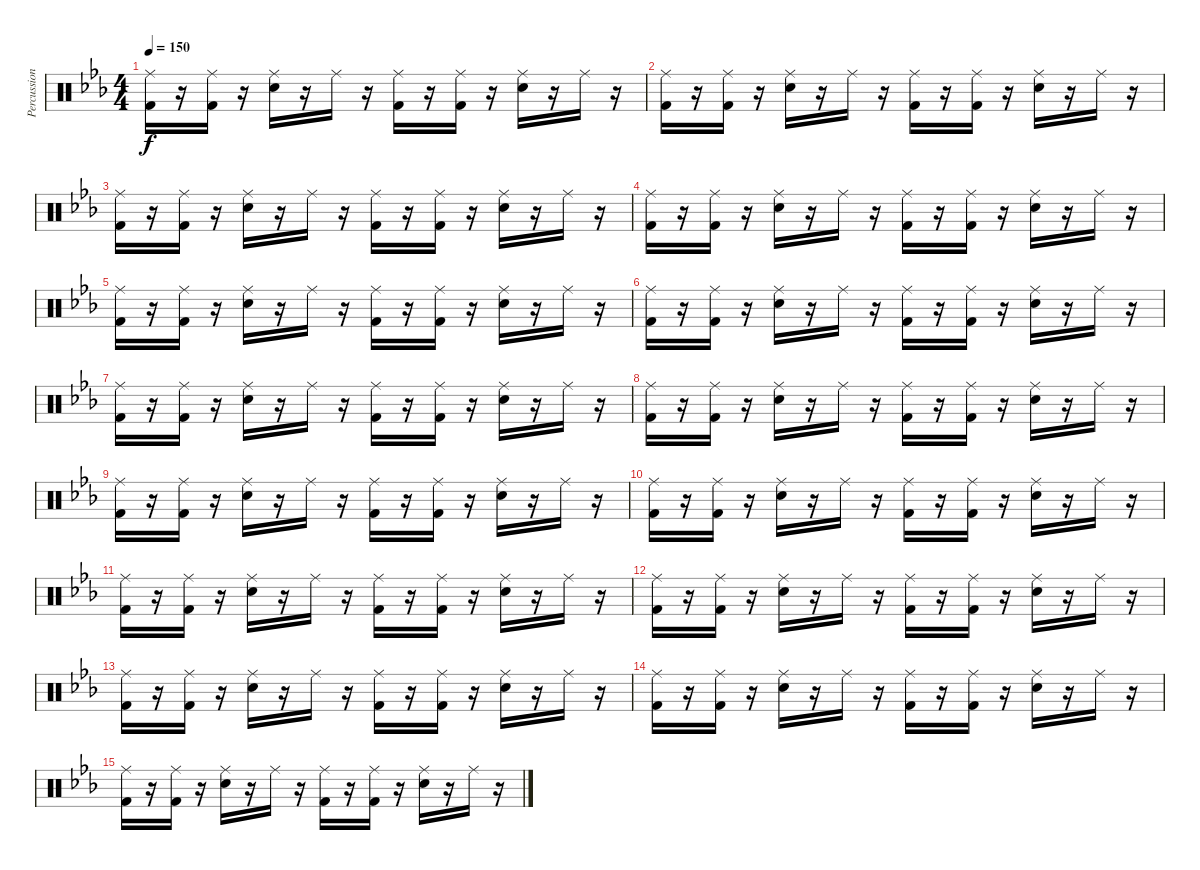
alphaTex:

\track ("Percussions" "Percussion") {solo instrument percussion}
\staff {score}
\articulation defaults
\ts (4 4)
\tempo 150
\clef neutral
\ks eb
("Ride (middle)" "Kick (hit) 2").16{dy f} r.16 ("Ride (middle)" "Kick (hit) 2").16 r.16 ("Ride (middle)" "Snare (hit) 2").16 r.16 "Ride (middle)".16 r.16 ("Ride (middle)" "Kick (hit) 2").16 r.16 ("Ride (middle)" "Kick (hit) 2").16 r.16 ("Ride (middle)" "Snare (hit) 2").16 r.16 "Ride (middle)".16 r.16 |
("Ride (middle)" "Kick (hit) 2").16 r.16 ("Ride (middle)" "Kick (hit) 2").16 r.16 ("Ride (middle)" "Snare (hit) 2").16 r.16 "Ride (middle)".16 r.16 ("Ride (middle)" "Kick (hit) 2").16 r.16 ("Ride (middle)" "Kick (hit) 2").16 r.16 ("Ride (middle)" "Snare (hit) 2").16 r.16 "Ride (middle)".16 r.16 |
("Ride (middle)" "Kick (hit) 2").16 r.16 ("Ride (middle)" "Kick (hit) 2").16 r.16 ("Ride (middle)" "Snare (hit) 2").16 r.16 "Ride (middle)".16 r.16 ("Ride (middle)" "Kick (hit) 2").16 r.16 ("Ride (middle)" "Kick (hit) 2").16 r.16 ("Ride (middle)" "Snare (hit) 2").16 r.16 "Ride (middle)".16 r.16 |
("Ride (middle)" "Kick (hit) 2").16 r.16 ("Ride (middle)" "Kick (hit) 2").16 r.16 ("Ride (middle)" "Snare (hit) 2").16 r.16 "Ride (middle)".16 r.16 ("Ride (middle)" "Kick (hit) 2").16 r.16 ("Ride (middle)" "Kick (hit) 2").16 r.16 ("Ride (middle)" "Snare (hit) 2").16 r.16 "Ride (middle)".16 r.16 |
("Ride (middle)" "Kick (hit) 2").16 r.16 ("Ride (middle)" "Kick (hit) 2").16 r.16 ("Ride (middle)" "Snare (hit) 2").16 r.16 "Ride (middle)".16 r.16 ("Ride (middle)" "Kick (hit) 2").16 r.16 ("Ride (middle)" "Kick (hit) 2").16 r.16 ("Ride (middle)" "Snare (hit) 2").16 r.16 "Ride (middle)".16 r.16 |
("Ride (middle)" "Kick (hit) 2").16 r.16 ("Ride (middle)" "Kick (hit) 2").16 r.16 ("Ride (middle)" "Snare (hit) 2").16 r.16 "Ride (middle)".16 r.16 ("Ride (middle)" "Kick (hit) 2").16 r.16 ("Ride (middle)" "Kick (hit) 2").16 r.16 ("Ride (middle)" "Snare (hit) 2").16 r.16 "Ride (middle)".16 r.16 |
("Ride (middle)" "Kick (hit) 2").16 r.16 ("Ride (middle)" "Kick (hit) 2").16 r.16 ("Ride (middle)" "Snare (hit) 2").16 r.16 "Ride (middle)".16 r.16 ("Ride (middle)" "Kick (hit) 2").16 r.16 ("Ride (middle)" "Kick (hit) 2").16 r.16 ("Ride (middle)" "Snare (hit) 2").16 r.16 "Ride (middle)".16 r.16 |
("Ride (middle)" "Kick (hit) 2").16 r.16 ("Ride (middle)" "Kick (hit) 2").16 r.16 ("Ride (middle)" "Snare (hit) 2").16 r.16 "Ride (middle)".16 r.16 ("Ride (middle)" "Kick (hit) 2").16 r.16 ("Ride (middle)" "Kick (hit) 2").16 r.16 ("Ride (middle)" "Snare (hit) 2").16 r.16 "Ride (middle)".16 r.16 |
("Ride (middle)" "Kick (hit) 2").16 r.16 ("Ride (middle)" "Kick (hit) 2").16 r.16 ("Ride (middle)" "Snare (hit) 2").16 r.16 "Ride (middle)".16 r.16 ("Ride (middle)" "Kick (hit) 2").16 r.16 ("Ride (middle)" "Kick (hit) 2").16 r.16 ("Ride (middle)" "Snare (hit) 2").16 r.16 "Ride (middle)".16 r.16 |
("Ride (middle)" "Kick (hit) 2").16 r.16 ("Ride (middle)" "Kick (hit) 2").16 r.16 ("Ride (middle)" "Snare (hit) 2").16 r.16 "Ride (middle)".16 r.16 ("Ride (middle)" "Kick (hit) 2").16 r.16 ("Ride (middle)" "Kick (hit) 2").16 r.16 ("Ride (middle)" "Snare (hit) 2").16 r.16 "Ride (middle)".16 r.16 |
("Ride (middle)" "Kick (hit) 2").16 r.16 ("Ride (middle)" "Kick (hit) 2").16 r.16 ("Ride (middle)" "Snare (hit) 2").16 r.16 "Ride (middle)".16 r.16 ("Ride (middle)" "Kick (hit) 2").16 r.16 ("Ride (middle)" "Kick (hit) 2").16 r.16 ("Ride (middle)" "Snare (hit) 2").16 r.16 "Ride (middle)".16 r.16 |
("Ride (middle)" "Kick (hit) 2").16 r.16 ("Ride (middle)" "Kick (hit) 2").16 r.16 ("Ride (middle)" "Snare (hit) 2").16 r.16 "Ride (middle)".16 r.16 ("Ride (middle)" "Kick (hit) 2").16 r.16 ("Ride (middle)" "Kick (hit) 2").16 r.16 ("Ride (middle)" "Snare (hit) 2").16 r.16 "Ride (middle)".16 r.16 |
("Ride (middle)" "Kick (hit) 2").16 r.16 ("Ride (middle)" "Kick (hit) 2").16 r.16 ("Ride (middle)" "Snare (hit) 2").16 r.16 "Ride (middle)".16 r.16 ("Ride (middle)" "Kick (hit) 2").16 r.16 ("Ride (middle)" "Kick (hit) 2").16 r.16 ("Ride (middle)" "Snare (hit) 2").16 r.16 "Ride (middle)".16 r.16 |
("Ride (middle)" "Kick (hit) 2").16 r.16 ("Ride (middle)" "Kick (hit) 2").16 r.16 ("Ride (middle)" "Snare (hit) 2").16 r.16 "Ride (middle)".16 r.16 ("Ride (middle)" "Kick (hit) 2").16 r.16 ("Ride (middle)" "Kick (hit) 2").16 r.16 ("Ride (middle)" "Snare (hit) 2").16 r.16 "Ride (middle)".16 r.16 |
("Ride (middle)" "Kick (hit) 2").16 r.16 ("Ride (middle)" "Kick (hit) 2").16 r.16 ("Ride (middle)" "Snare (hit) 2").16 r.16 "Ride (middle)".16 r.16 ("Ride (middle)" "Kick (hit) 2").16 r.16 ("Ride (middle)" "Kick (hit) 2").16 r.16 ("Ride (middle)" "Snare (hit) 2").16 r.16 "Ride (middle)".16 r.16
